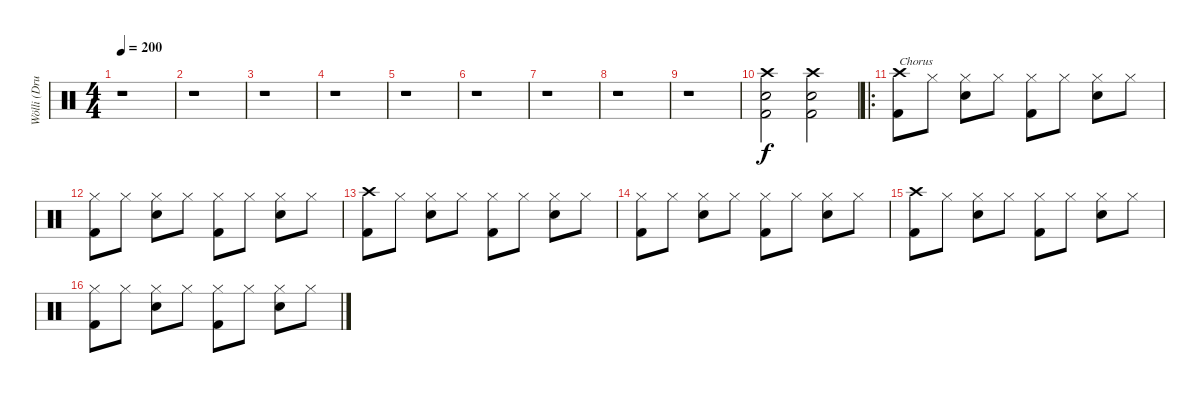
\track ("Wölli (Drums)" "Wölli (Dru") {instrument percussion}
\staff {score}
\articulation defaults
\ts (4 4)
\tempo 200
\clef neutral
\ks c
r.1{dy f} |
r.1 |
r.1 |
r.1 |
r.1 |
r.1 |
r.1 |
r.1 |
r.1 |
("Crash high (hit)" "Snare (hit) 2" "Kick (hit) 2").2 ("Crash high (hit)" "Snare (hit) 2" "Kick (hit) 2").2 |
\ro
("Crash high (hit)" "Kick (hit) 2").8{txt "Chorus"} "Hi-Hat (closed)".8 ("Hi-Hat (closed)" "Snare (hit) 2").8 "Hi-Hat (closed)".8 ("Hi-Hat (closed)" "Kick (hit) 2").8 "Hi-Hat (closed)".8 ("Hi-Hat (closed)" "Snare (hit) 2").8 "Hi-Hat (closed)".8 |
("Hi-Hat (closed)" "Kick (hit) 2").8 "Hi-Hat (closed)".8 ("Hi-Hat (closed)" "Snare (hit) 2").8 "Hi-Hat (closed)".8 ("Hi-Hat (closed)" "Kick (hit) 2").8 "Hi-Hat (closed)".8 ("Hi-Hat (closed)" "Snare (hit) 2").8 "Hi-Hat (closed)".8 |
("Crash high (hit)" "Kick (hit) 2").8 "Hi-Hat (closed)".8 ("Hi-Hat (closed)" "Snare (hit) 2").8 "Hi-Hat (closed)".8 ("Hi-Hat (closed)" "Kick (hit) 2").8 "Hi-Hat (closed)".8 ("Hi-Hat (closed)" "Snare (hit) 2").8 "Hi-Hat (closed)".8 |
("Hi-Hat (closed)" "Kick (hit) 2").8 "Hi-Hat (closed)".8 ("Hi-Hat (closed)" "Snare (hit) 2").8 "Hi-Hat (closed)".8 ("Hi-Hat (closed)" "Kick (hit) 2").8 "Hi-Hat (closed)".8 ("Hi-Hat (closed)" "Snare (hit) 2").8 "Hi-Hat (closed)".8 |
("Crash high (hit)" "Kick (hit) 2").8 "Hi-Hat (closed)".8 ("Hi-Hat (closed)" "Snare (hit) 2").8 "Hi-Hat (closed)".8 ("Hi-Hat (closed)" "Kick (hit) 2").8 "Hi-Hat (closed)".8 ("Hi-Hat (closed)" "Snare (hit) 2").8 "Hi-Hat (closed)".8 |
("Hi-Hat (closed)" "Kick (hit) 2").8 "Hi-Hat (closed)".8 ("Hi-Hat (closed)" "Snare (hit) 2").8 "Hi-Hat (closed)".8 ("Hi-Hat (closed)" "Kick (hit) 2").8 "Hi-Hat (closed)".8 ("Hi-Hat (closed)" "Snare (hit) 2").8 "Hi-Hat (closed)".8
